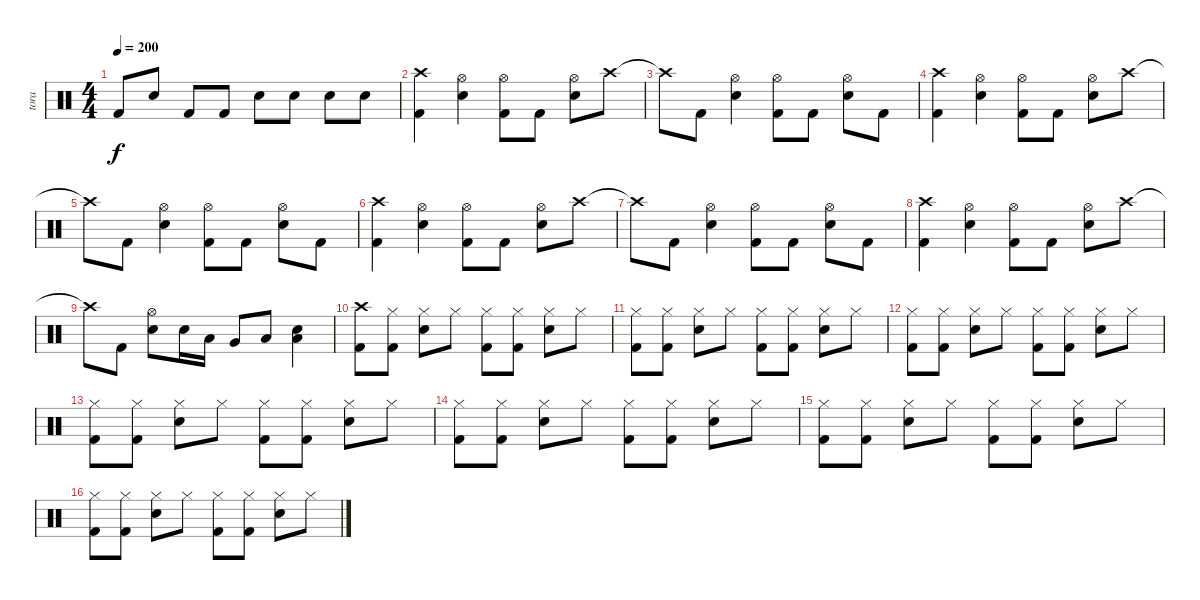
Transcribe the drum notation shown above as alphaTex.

\track ("tora" "tora") {instrument percussion}
\staff {score}
\articulation defaults
\ts (4 4)
\tempo 200
\clef neutral
\ks c "Kick (hit) 2".8{dy f} "Snare (hit) 2".8 "Kick (hit) 2".8 "Kick (hit) 2".8 "Snare (hit) 2".8 "Snare (hit) 2".8 "Snare (hit) 2".8 "Snare (hit) 2".8
|
("Crash high (hit)" "Kick (hit) 2").4 ("Hi-Hat (open)" "Snare (hit) 2").4 ("Hi-Hat (open)" "Kick (hit) 2").8 "Kick (hit) 2".8 ("Hi-Hat (open)" "Snare (hit) 2").8 "Crash high (hit)".8 |
"Crash high (hit)"{t}.8 "Kick (hit) 2".8 ("Hi-Hat (open)" "Snare (hit) 2").4 ("Hi-Hat (open)" "Kick (hit) 2").8 "Kick (hit) 2".8 ("Hi-Hat (open)" "Snare (hit) 2").8 "Kick (hit) 2".8 |
("Crash high (hit)" "Kick (hit) 2").4 ("Hi-Hat (open)" "Snare (hit) 2").4 ("Hi-Hat (open)" "Kick (hit) 2").8 "Kick (hit) 2".8 ("Hi-Hat (open)" "Snare (hit) 2").8 "Crash high (hit)".8 |
"Crash high (hit)"{t}.8 "Kick (hit) 2".8 ("Hi-Hat (open)" "Snare (hit) 2").4 ("Hi-Hat (open)" "Kick (hit) 2").8 "Kick (hit) 2".8 ("Hi-Hat (open)" "Snare (hit) 2").8 "Kick (hit) 2".8 |
("Crash high (hit)" "Kick (hit) 2").4 ("Hi-Hat (open)" "Snare (hit) 2").4 ("Hi-Hat (open)" "Kick (hit) 2").8 "Kick (hit) 2".8 ("Hi-Hat (open)" "Snare (hit) 2").8 "Crash high (hit)".8 |
"Crash high (hit)"{t}.8 "Kick (hit) 2".8 ("Hi-Hat (open)" "Snare (hit) 2").4 ("Hi-Hat (open)" "Kick (hit) 2").8 "Kick (hit) 2".8 ("Hi-Hat (open)" "Snare (hit) 2").8 "Kick (hit) 2".8 |
("Crash high (hit)" "Kick (hit) 2").4 ("Hi-Hat (open)" "Snare (hit) 2").4 ("Hi-Hat (open)" "Kick (hit) 2").8 "Kick (hit) 2".8 ("Hi-Hat (open)" "Snare (hit) 2").8 "Crash high (hit)".8 |
"Crash high (hit)"{t}.8 "Kick (hit) 2".8 ("Hi-Hat (open)" "Snare (hit) 2").8 "Snare (hit) 2".16 "Low Tom (hit)".16 "Very Low Tom (hit)".8 "Low Floor Tom (hit)".8 ("Snare (hit) 2" "Low Floor Tom (hit)").4 |
("Crash high (hit)" "Kick (hit) 2").8 ("Hi-Hat (closed)" "Kick (hit) 2").8 ("Hi-Hat (closed)" "Snare (hit) 2").8 "Hi-Hat (closed)".8 ("Hi-Hat (closed)" "Kick (hit) 2").8 ("Hi-Hat (closed)" "Kick (hit) 2").8 ("Hi-Hat (closed)" "Snare (hit) 2").8 "Hi-Hat (closed)".8 |
("Hi-Hat (closed)" "Kick (hit) 2").8 ("Hi-Hat (closed)" "Kick (hit) 2").8 ("Hi-Hat (closed)" "Snare (hit) 2").8 "Hi-Hat (closed)".8 ("Hi-Hat (closed)" "Kick (hit) 2").8 ("Hi-Hat (closed)" "Kick (hit) 2").8 ("Hi-Hat (closed)" "Snare (hit) 2").8 "Hi-Hat (closed)".8 |
("Hi-Hat (closed)" "Kick (hit) 2").8 ("Hi-Hat (closed)" "Kick (hit) 2").8 ("Hi-Hat (closed)" "Snare (hit) 2").8 "Hi-Hat (closed)".8 ("Hi-Hat (closed)" "Kick (hit) 2").8 ("Hi-Hat (closed)" "Kick (hit) 2").8 ("Hi-Hat (closed)" "Snare (hit) 2").8 "Hi-Hat (closed)".8 |
("Hi-Hat (closed)" "Kick (hit) 2").8 ("Hi-Hat (closed)" "Kick (hit) 2").8 ("Hi-Hat (closed)" "Snare (hit) 2").8 "Hi-Hat (closed)".8 ("Hi-Hat (closed)" "Kick (hit) 2").8 ("Hi-Hat (closed)" "Kick (hit) 2").8 ("Hi-Hat (closed)" "Snare (hit) 2").8 "Hi-Hat (closed)".8 |
("Hi-Hat (closed)" "Kick (hit) 2").8 ("Hi-Hat (closed)" "Kick (hit) 2").8 ("Hi-Hat (closed)" "Snare (hit) 2").8 "Hi-Hat (closed)".8 ("Hi-Hat (closed)" "Kick (hit) 2").8 ("Hi-Hat (closed)" "Kick (hit) 2").8 ("Hi-Hat (closed)" "Snare (hit) 2").8 "Hi-Hat (closed)".8 |
("Hi-Hat (closed)" "Kick (hit) 2").8 ("Hi-Hat (closed)" "Kick (hit) 2").8 ("Hi-Hat (closed)" "Snare (hit) 2").8 "Hi-Hat (closed)".8 ("Hi-Hat (closed)" "Kick (hit) 2").8 ("Hi-Hat (closed)" "Kick (hit) 2").8 ("Hi-Hat (closed)" "Snare (hit) 2").8 "Hi-Hat (closed)".8 |
("Hi-Hat (closed)" "Kick (hit) 2").8 ("Hi-Hat (closed)" "Kick (hit) 2").8 ("Hi-Hat (closed)" "Snare (hit) 2").8 "Hi-Hat (closed)".8 ("Hi-Hat (closed)" "Kick (hit) 2").8 ("Hi-Hat (closed)" "Kick (hit) 2").8 ("Hi-Hat (closed)" "Snare (hit) 2").8 "Hi-Hat (closed)".8
